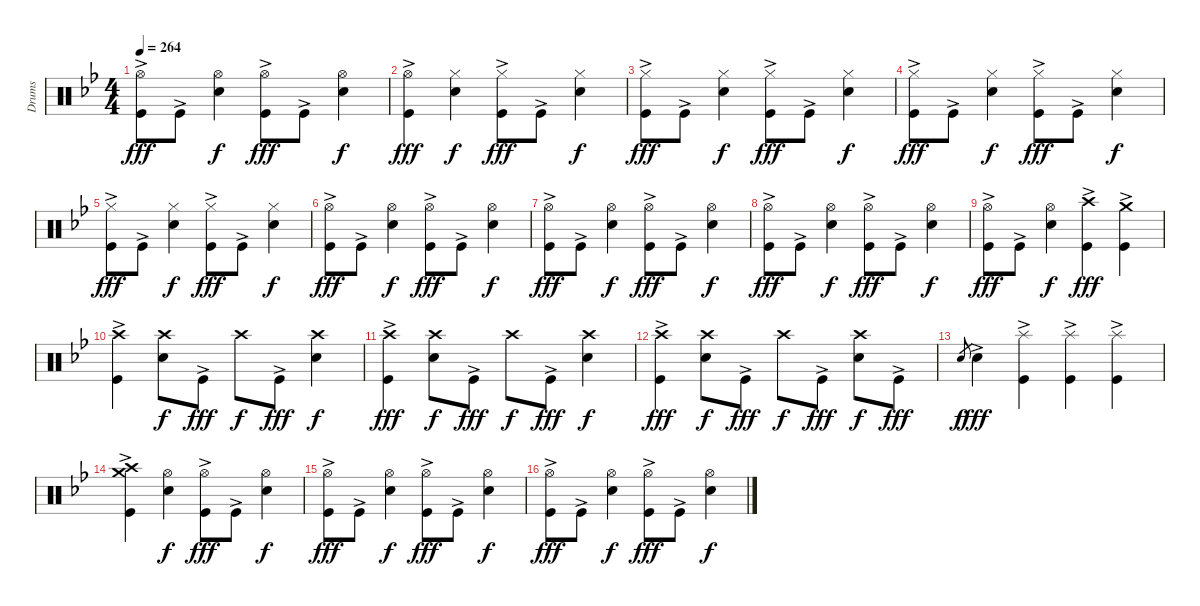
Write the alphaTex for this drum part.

\track ("Drums" "Drums") {instrument percussion}
\staff {score}
\articulation defaults
\ts (4 4)
\tempo 264
\clef neutral
\ks gminor
("Hi-Hat (open)" "Kick (hit)"{ac}).8{dy fff} "Kick (hit)"{ac}.8 ("Hi-Hat (open)" "Snare (hit) 2").4{dy f} ("Hi-Hat (open)" "Kick (hit)"{ac}).8{dy fff} "Kick (hit)"{ac}.8 ("Hi-Hat (open)" "Snare (hit) 2").4{dy f} |
("Hi-Hat (open)" "Kick (hit)"{ac}).4{dy fff} ("Hi-Hat (closed)" "Snare (hit) 2").4{dy f} ("Hi-Hat (closed)" "Kick (hit)"{ac}).8{dy fff} "Kick (hit)"{ac}.8 ("Hi-Hat (closed)" "Snare (hit) 2").4{dy f} |
("Hi-Hat (closed)" "Kick (hit)"{ac}).8{dy fff} "Kick (hit)"{ac}.8 ("Hi-Hat (closed)" "Snare (hit) 2").4{dy f} ("Hi-Hat (closed)" "Kick (hit)"{ac}).8{dy fff} "Kick (hit)"{ac}.8 ("Hi-Hat (closed)" "Snare (hit) 2").4{dy f} |
("Hi-Hat (closed)" "Kick (hit)"{ac}).8{dy fff} "Kick (hit)"{ac}.8 ("Hi-Hat (closed)" "Snare (hit) 2").4{dy f} ("Hi-Hat (closed)" "Kick (hit)"{ac}).8{dy fff} "Kick (hit)"{ac}.8 ("Hi-Hat (closed)" "Snare (hit) 2").4{dy f} |
("Hi-Hat (closed)" "Kick (hit)"{ac}).8{dy fff} "Kick (hit)"{ac}.8 ("Hi-Hat (closed)" "Snare (hit) 2").4{dy f} ("Hi-Hat (closed)" "Kick (hit)"{ac}).8{dy fff} "Kick (hit)"{ac}.8 ("Hi-Hat (closed)" "Snare (hit) 2").4{dy f} |
("Hi-Hat (open)" "Kick (hit)"{ac}).8{dy fff} "Kick (hit)"{ac}.8 ("Hi-Hat (open)" "Snare (hit) 2").4{dy f} ("Hi-Hat (open)" "Kick (hit)"{ac}).8{dy fff} "Kick (hit)"{ac}.8 ("Hi-Hat (open)" "Snare (hit) 2").4{dy f} |
("Hi-Hat (open)" "Kick (hit)"{ac}).8{dy fff} "Kick (hit)"{ac}.8 ("Hi-Hat (open)" "Snare (hit) 2").4{dy f} ("Hi-Hat (open)" "Kick (hit)"{ac}).8{dy fff} "Kick (hit)"{ac}.8 ("Hi-Hat (open)" "Snare (hit) 2").4{dy f} |
("Hi-Hat (open)" "Kick (hit)"{ac}).8{dy fff} "Kick (hit)"{ac}.8 ("Hi-Hat (open)" "Snare (hit) 2").4{dy f} ("Hi-Hat (open)" "Kick (hit)"{ac}).8{dy fff} "Kick (hit)"{ac}.8 ("Hi-Hat (open)" "Snare (hit) 2").4{dy f} |
("Hi-Hat (open)" "Kick (hit)"{ac}).8{dy fff} "Kick (hit)"{ac}.8 ("Hi-Hat (open)" "Snare (hit) 2").4{dy f} ("Crash high (hit)" "Kick (hit)"{ac}).4{dy fff} ("Crash medium (hit)" "Kick (hit)"{ac}).4 |
("Crash high (hit)" "Kick (hit)"{ac}).4 ("Crash high (hit)" "Snare (hit) 2").8{dy f} "Kick (hit)"{ac}.8{dy fff} "Crash high (hit)".8{dy f} "Kick (hit)"{ac}.8{dy fff} ("Crash high (hit)" "Snare (hit) 2").4{dy f} |
("Crash high (hit)" "Kick (hit)"{ac}).4{dy fff} ("Crash high (hit)" "Snare (hit) 2").8{dy f} "Kick (hit)"{ac}.8{dy fff} "Crash high (hit)".8{dy f} "Kick (hit)"{ac}.8{dy fff} ("Crash high (hit)" "Snare (hit) 2").4{dy f} |
("Crash high (hit)" "Kick (hit)"{ac}).4{dy fff} ("Crash high (hit)" "Snare (hit) 2").8{dy f} "Kick (hit)"{ac}.8{dy fff} "Crash high (hit)".8{dy f} "Kick (hit)"{ac}.8{dy fff} ("Crash high (hit)" "Snare (hit) 2").8{dy f} "Kick (hit)"{ac}.8{dy fff} |
"Snare (hit) 2".8{gr dy f} "Snare (hit) 2"{ac}.4{dy fff} ("Splash (hit)" "Kick (hit)"{ac}).4 ("Splash (hit)" "Kick (hit)"{ac}).4 ("Splash (hit)" "Kick (hit)"{ac}).4 |
("Crash high (hit)" "Crash medium (hit)" "Kick (hit)"{ac}).4 ("Hi-Hat (open)" "Snare (hit) 2").4{dy f} ("Hi-Hat (open)" "Kick (hit)"{ac}).8{dy fff} "Kick (hit)"{ac}.8 ("Hi-Hat (open)" "Snare (hit) 2").4{dy f} |
("Hi-Hat (open)" "Kick (hit)"{ac}).8{dy fff} "Kick (hit)"{ac}.8 ("Hi-Hat (open)" "Snare (hit) 2").4{dy f} ("Hi-Hat (open)" "Kick (hit)"{ac}).8{dy fff} "Kick (hit)"{ac}.8 ("Hi-Hat (open)" "Snare (hit) 2").4{dy f} |
("Hi-Hat (open)" "Kick (hit)"{ac}).8{dy fff} "Kick (hit)"{ac}.8 ("Hi-Hat (open)" "Snare (hit) 2").4{dy f} ("Hi-Hat (open)" "Kick (hit)"{ac}).8{dy fff} "Kick (hit)"{ac}.8 ("Hi-Hat (open)" "Snare (hit) 2").4{dy f}
